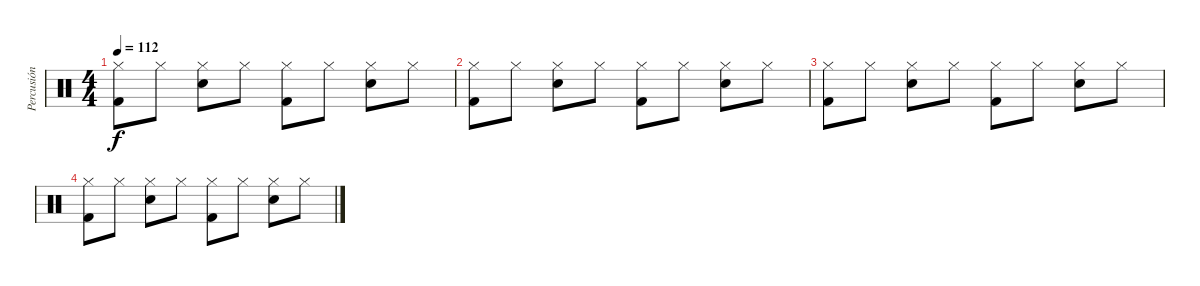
\track ("Percusión" "Percusión") {instrument percussion}
\staff {score}
\articulation defaults
\ts (4 4)
\tempo 112
\clef neutral
\ks c
("Hi-Hat (closed)" "Kick (hit) 2").8{dy f} "Hi-Hat (closed)".8 ("Hi-Hat (closed)" "Snare (hit) 2").8 "Hi-Hat (closed)".8 ("Hi-Hat (closed)" "Kick (hit) 2").8 "Hi-Hat (closed)".8 ("Hi-Hat (closed)" "Snare (hit) 2").8 "Hi-Hat (closed)".8 |
("Hi-Hat (closed)" "Kick (hit) 2").8 "Hi-Hat (closed)".8 ("Hi-Hat (closed)" "Snare (hit) 2").8 "Hi-Hat (closed)".8 ("Hi-Hat (closed)" "Kick (hit) 2").8 "Hi-Hat (closed)".8 ("Hi-Hat (closed)" "Snare (hit) 2").8 "Hi-Hat (closed)".8 |
("Hi-Hat (closed)" "Kick (hit) 2").8 "Hi-Hat (closed)".8 ("Hi-Hat (closed)" "Snare (hit) 2").8 "Hi-Hat (closed)".8 ("Hi-Hat (closed)" "Kick (hit) 2").8 "Hi-Hat (closed)".8 ("Hi-Hat (closed)" "Snare (hit) 2").8 "Hi-Hat (closed)".8 |
("Hi-Hat (closed)" "Kick (hit) 2").8 "Hi-Hat (closed)".8 ("Hi-Hat (closed)" "Snare (hit) 2").8 "Hi-Hat (closed)".8 ("Hi-Hat (closed)" "Kick (hit) 2").8 "Hi-Hat (closed)".8 ("Hi-Hat (closed)" "Snare (hit) 2").8 "Hi-Hat (closed)".8
